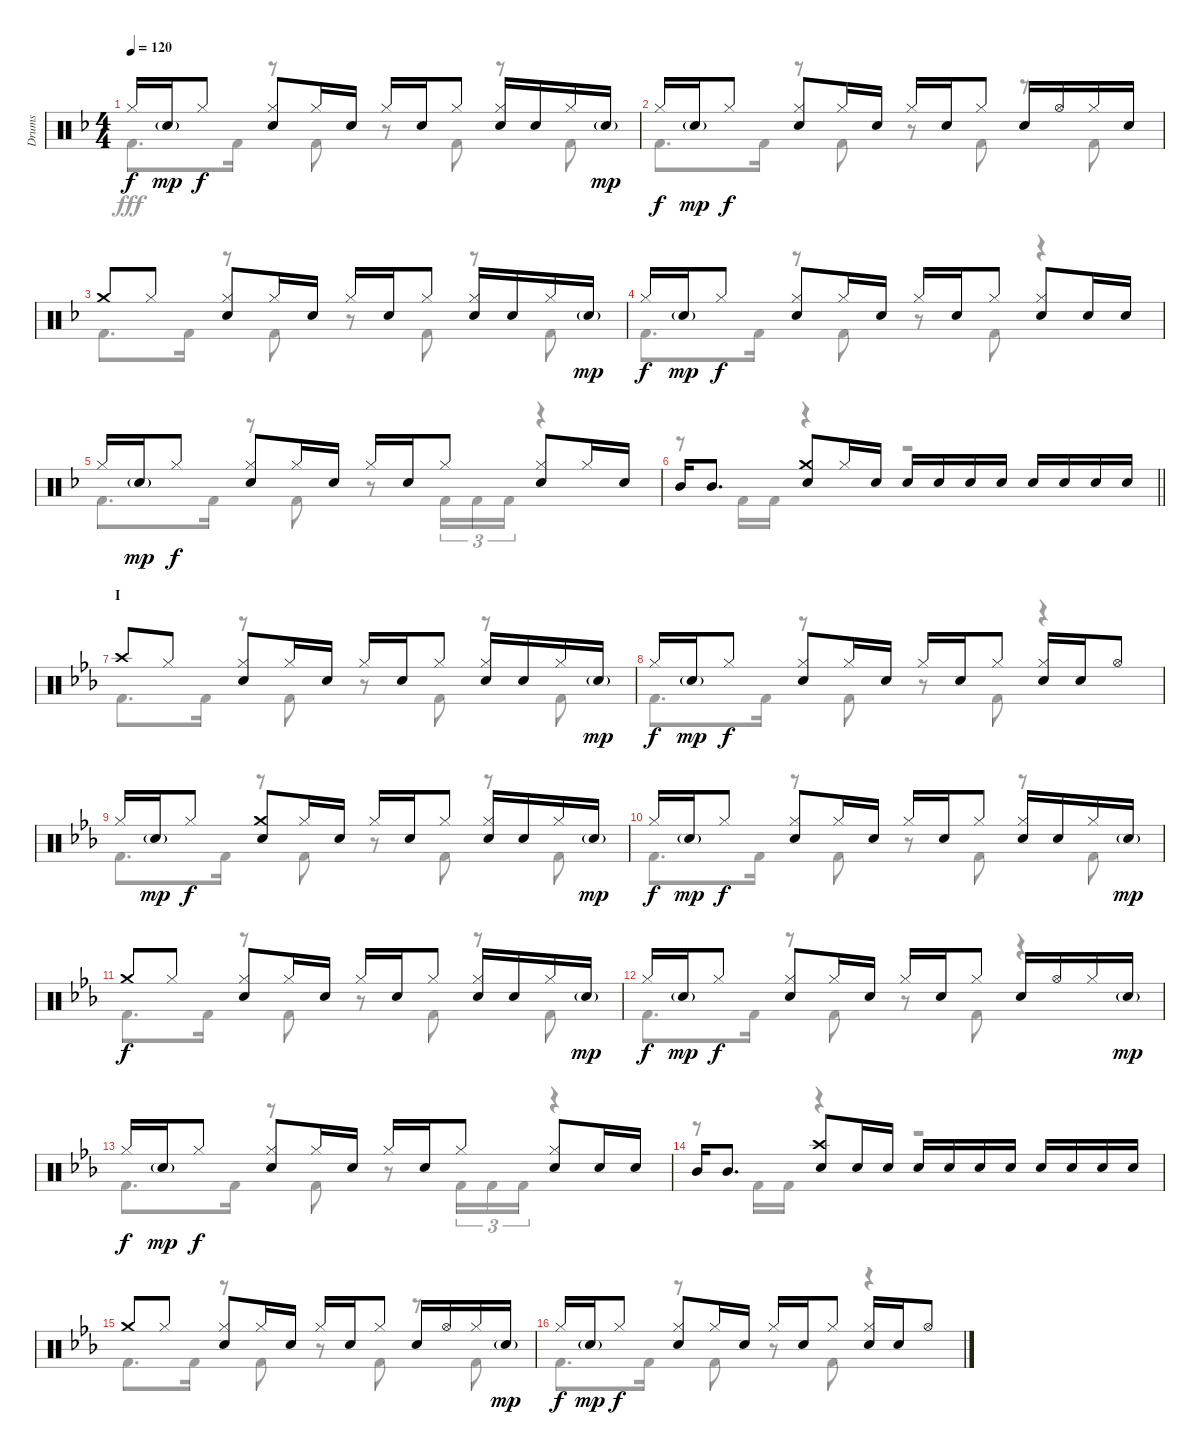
\track ("Drums" "Drums") {instrument percussion}
\staff {score}
\articulation defaults
\voice
\ts (4 4)
\tempo 120
\clef neutral
\ks f "Hi-Hat (closed)".16{dy f} "Snare (hit) 2"{g}.16{dy mp} "Hi-Hat (closed)".8{dy f}
("Hi-Hat (closed)" "Snare (hit) 2").8 "Hi-Hat (closed)".16 "Snare (hit) 2".16 "Hi-Hat (closed)".16 "Snare (hit) 2".16 "Hi-Hat (closed)".8 ("Hi-Hat (closed)" "Snare (hit) 2").16 "Snare (hit) 2".16 "Hi-Hat (closed)".16 "Snare (hit) 2"{g}.16{dy mp} |
"Hi-Hat (closed)".16{dy f} "Snare (hit) 2"{g}.16{dy mp} "Hi-Hat (closed)".8{dy f} ("Hi-Hat (closed)" "Snare (hit) 2").8 "Hi-Hat (closed)".16 "Snare (hit) 2".16 "Hi-Hat (closed)".16 "Snare (hit) 2".16 "Hi-Hat (closed)".8 "Snare (hit) 2".16 "Hi-Hat (open)".16 "Hi-Hat (closed)".16 "Snare (hit) 2".16 |
"Crash medium (hit)".8 "Hi-Hat (closed)".8 ("Hi-Hat (closed)" "Snare (hit) 2").8 "Hi-Hat (closed)".16 "Snare (hit) 2".16 "Hi-Hat (closed)".16 "Snare (hit) 2".16 "Hi-Hat (closed)".8 ("Hi-Hat (closed)" "Snare (hit) 2").16 "Snare (hit) 2".16 "Hi-Hat (closed)".16 "Snare (hit) 2"{g}.16{dy mp} |
"Hi-Hat (closed)".16{dy f} "Snare (hit) 2"{g}.16{dy mp} "Hi-Hat (closed)".8{dy f} ("Hi-Hat (closed)" "Snare (hit) 2").8 "Hi-Hat (closed)".16 "Snare (hit) 2".16 "Hi-Hat (closed)".16 "Snare (hit) 2".16 "Hi-Hat (closed)".8 ("Hi-Hat (closed)" "Snare (hit) 2").8 "Snare (hit) 2".16 "Snare (hit) 2".16 |
"Hi-Hat (closed)".16 "Snare (hit) 2"{g}.16{dy mp} "Hi-Hat (closed)".8{dy f} ("Hi-Hat (closed)" "Snare (hit) 2").8 "Hi-Hat (closed)".16 "Snare (hit) 2".16 "Hi-Hat (closed)".16 "Snare (hit) 2".16 "Hi-Hat (closed)".8 ("Hi-Hat (closed)" "Snare (hit) 2").8 "Hi-Hat (closed)".16 "Snare (hit) 2".16 |
\barLineRight lightlight "Mid Tom (hit)".16 "Mid Tom (hit)".8{d}
("Crash medium (hit)" "Snare (hit) 2").8 "Hi-Hat (closed)".16 "Snare (hit) 2".16 "Snare (hit) 2".16 "Snare (hit) 2".16 "Snare (hit) 2".16 "Snare (hit) 2".16 "Snare (hit) 2".16 "Snare (hit) 2".16 "Snare (hit) 2".16 "Snare (hit) 2".16 |
\section ("" "I")
\ks eb "Crash high (hit)".8 "Hi-Hat (closed)".8
("Hi-Hat (closed)" "Snare (hit) 2").8 "Hi-Hat (closed)".16 "Snare (hit) 2".16 "Hi-Hat (closed)".16 "Snare (hit) 2".16 "Hi-Hat (closed)".8 ("Hi-Hat (closed)" "Snare (hit) 2").16 "Snare (hit) 2".16 "Hi-Hat (closed)".16 "Snare (hit) 2"{g}.16{dy mp} |
"Hi-Hat (closed)".16{dy f} "Snare (hit) 2"{g}.16{dy mp} "Hi-Hat (closed)".8{dy f} ("Hi-Hat (closed)" "Snare (hit) 2").8 "Hi-Hat (closed)".16 "Snare (hit) 2".16 "Hi-Hat (closed)".16 "Snare (hit) 2".16 "Hi-Hat (closed)".8 ("Hi-Hat (closed)" "Snare (hit) 2").16 "Snare (hit) 2".16 "Hi-Hat (open)".8 |
"Hi-Hat (closed)".16 "Snare (hit) 2"{g}.16{dy mp} "Hi-Hat (closed)".8{dy f} ("Crash medium (hit)" "Snare (hit) 2").8 "Hi-Hat (closed)".16 "Snare (hit) 2".16 "Hi-Hat (closed)".16 "Snare (hit) 2".16 "Hi-Hat (closed)".8 ("Hi-Hat (closed)" "Snare (hit) 2").16 "Snare (hit) 2".16 "Hi-Hat (closed)".16 "Snare (hit) 2"{g}.16{dy mp} |
"Hi-Hat (closed)".16{dy f} "Snare (hit) 2"{g}.16{dy mp} "Hi-Hat (closed)".8{dy f} ("Hi-Hat (closed)" "Snare (hit) 2").8 "Hi-Hat (closed)".16 "Snare (hit) 2".16 "Hi-Hat (closed)".16 "Snare (hit) 2".16 "Hi-Hat (closed)".8 ("Hi-Hat (closed)" "Snare (hit) 2").16 "Snare (hit) 2".16 "Hi-Hat (closed)".16 "Snare (hit) 2"{g}.16{dy mp} |
"Crash medium (hit)".8{dy f} "Hi-Hat (closed)".8 ("Hi-Hat (closed)" "Snare (hit) 2").8 "Hi-Hat (closed)".16 "Snare (hit) 2".16 "Hi-Hat (closed)".16 "Snare (hit) 2".16 "Hi-Hat (closed)".8 ("Hi-Hat (closed)" "Snare (hit) 2").16 "Snare (hit) 2".16 "Hi-Hat (closed)".16 "Snare (hit) 2"{g}.16{dy mp} |
"Hi-Hat (closed)".16{dy f} "Snare (hit) 2"{g}.16{dy mp} "Hi-Hat (closed)".8{dy f} ("Hi-Hat (closed)" "Snare (hit) 2").8 "Hi-Hat (closed)".16 "Snare (hit) 2".16 "Hi-Hat (closed)".16 "Snare (hit) 2".16 "Hi-Hat (closed)".8 "Snare (hit) 2".16 "Hi-Hat (open)".16 "Hi-Hat (closed)".16 "Snare (hit) 2"{g}.16{dy mp} |
"Hi-Hat (closed)".16{dy f} "Snare (hit) 2"{g}.16{dy mp} "Hi-Hat (closed)".8{dy f} ("Hi-Hat (closed)" "Snare (hit) 2").8 "Hi-Hat (closed)".16 "Snare (hit) 2".16 "Hi-Hat (closed)".16 "Snare (hit) 2".16 "Hi-Hat (closed)".8 ("Hi-Hat (closed)" "Snare (hit) 2").8 "Snare (hit) 2".16 "Snare (hit) 2".16 |
"Mid Tom (hit)".16 "Mid Tom (hit)".8{d} ("Crash high (hit)" "Snare (hit) 2").8 "Snare (hit) 2".16 "Snare (hit) 2".16 "Snare (hit) 2".16 "Snare (hit) 2".16 "Snare (hit) 2".16 "Snare (hit) 2".16 "Snare (hit) 2".16 "Snare (hit) 2".16 "Snare (hit) 2".16 "Snare (hit) 2".16 |
"Crash medium (hit)".8 "Hi-Hat (closed)".8 ("Hi-Hat (closed)" "Snare (hit) 2").8 "Hi-Hat (closed)".16 "Snare (hit) 2".16 "Hi-Hat (closed)".16 "Snare (hit) 2".16 "Hi-Hat (closed)".8 "Snare (hit) 2".16 "Hi-Hat (open)".16 "Hi-Hat (closed)".16 "Snare (hit) 2"{g}.16{dy mp} |
"Hi-Hat (closed)".16{dy f} "Snare (hit) 2"{g}.16{dy mp} "Hi-Hat (closed)".8{dy f} ("Hi-Hat (closed)" "Snare (hit) 2").8 "Hi-Hat (closed)".16 "Snare (hit) 2".16 "Hi-Hat (closed)".16 "Snare (hit) 2".16 "Hi-Hat (closed)".8 ("Hi-Hat (closed)" "Snare (hit) 2").16 "Snare (hit) 2".16 "Hi-Hat (open)".8
\voice
\clef neutral
\ottava regular
\simile none
\ks f "Kick (hit) 2".8{d dy fff} "Kick (hit) 2".16
r.8 "Kick (hit) 2".8 r.8 "Kick (hit) 2".8 r.8 "Kick (hit) 2".8 |
"Kick (hit) 2".8{d} "Kick (hit) 2".16 r.8 "Kick (hit) 2".8 r.8 "Kick (hit) 2".8 r.8 "Kick (hit) 2".8 |
"Kick (hit) 2".8{d} "Kick (hit) 2".16 r.8 "Kick (hit) 2".8 r.8 "Kick (hit) 2".8 r.8 "Kick (hit) 2".8 |
"Kick (hit) 2".8{d} "Kick (hit) 2".16 r.8 "Kick (hit) 2".8 r.8 "Kick (hit) 2".8 r.4 |
"Kick (hit) 2".8{d} "Kick (hit) 2".16 r.8 "Kick (hit) 2".8 r.8 "Kick (hit) 2".16{tu (3 2)} "Kick (hit) 2".16{tu (3 2)} "Kick (hit) 2".16{tu (3 2)} r.4 |
\barLineRight lightlight
r.8 "Kick (hit) 2".16 "Kick (hit) 2".16 r.4 r.2 |
\ks eb "Kick (hit) 2".8{d} "Kick (hit) 2".16
r.8 "Kick (hit) 2".8 r.8 "Kick (hit) 2".8 r.8 "Kick (hit) 2".8 |
"Kick (hit) 2".8{d} "Kick (hit) 2".16 r.8 "Kick (hit) 2".8 r.8 "Kick (hit) 2".8 r.4 |
"Kick (hit) 2".8{d} "Kick (hit) 2".16 r.8 "Kick (hit) 2".8 r.8 "Kick (hit) 2".8 r.8 "Kick (hit) 2".8 |
"Kick (hit) 2".8{d} "Kick (hit) 2".16 r.8 "Kick (hit) 2".8 r.8 "Kick (hit) 2".8 r.8 "Kick (hit) 2".8 |
"Kick (hit) 2".8{d} "Kick (hit) 2".16 r.8 "Kick (hit) 2".8 r.8 "Kick (hit) 2".8 r.8 "Kick (hit) 2".8 |
"Kick (hit) 2".8{d} "Kick (hit) 2".16 r.8 "Kick (hit) 2".8 r.8 "Kick (hit) 2".8 r.4 |
"Kick (hit) 2".8{d} "Kick (hit) 2".16 r.8 "Kick (hit) 2".8 r.8 "Kick (hit) 2".16{tu (3 2)} "Kick (hit) 2".16{tu (3 2)} "Kick (hit) 2".16{tu (3 2)} r.4 |
r.8 "Kick (hit) 2".16 "Kick (hit) 2".16 r.4 r.2 |
"Kick (hit) 2".8{d} "Kick (hit) 2".16 r.8 "Kick (hit) 2".8 r.8 "Kick (hit) 2".8 r.8 "Kick (hit) 2".8 |
"Kick (hit) 2".8{d} "Kick (hit) 2".16 r.8 "Kick (hit) 2".8 r.8 "Kick (hit) 2".8 r.4
